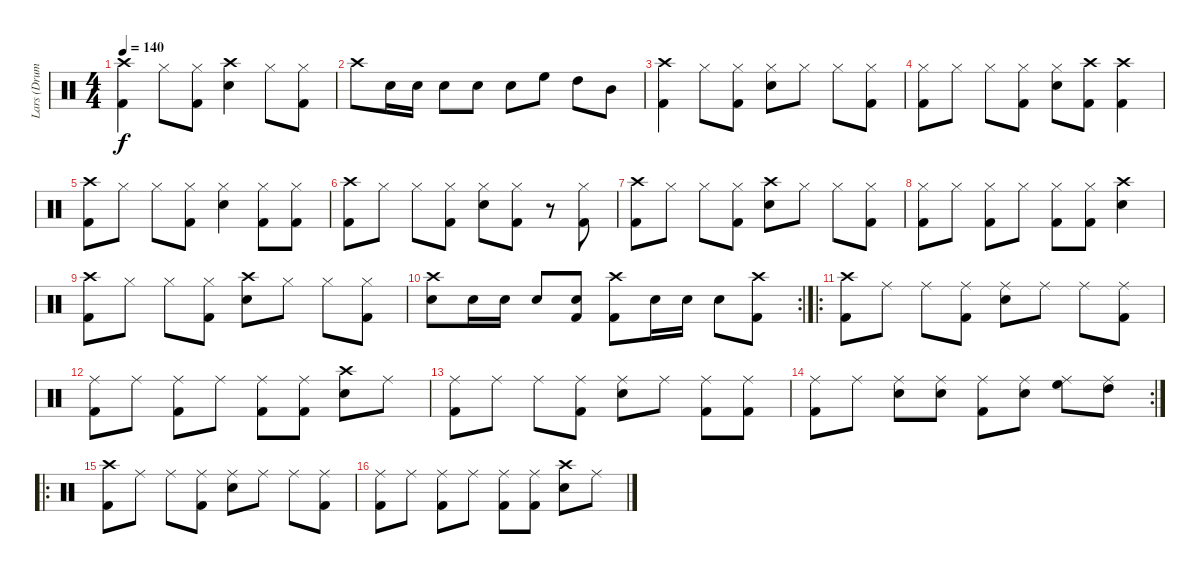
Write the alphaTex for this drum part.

\track ("Lars (Drums)" "Lars (Drum") {instrument percussion}
\staff {score}
\articulation defaults
\ts (4 4)
\tempo 140
\clef neutral
\ks c
("Crash high (hit)" "Kick (hit) 2").4{dy f} "Hi-Hat (closed)".8 ("Hi-Hat (closed)" "Kick (hit) 2").8 ("Crash high (hit)" "Snare (hit) 2").4 "Hi-Hat (closed)".8 ("Hi-Hat (closed)" "Kick (hit) 2").8 |
"Crash high (hit)".8 "Snare (hit) 2".16 "Snare (hit) 2".16 "Snare (hit) 2".8 "Snare (hit) 2".8 "Snare (hit) 2".8 "High Floor Tom (hit)".8 "High Tom (hit)".8 "Mid Tom (hit)".8 |
("Crash high (hit)" "Kick (hit) 2").4 "Hi-Hat (closed)".8 ("Hi-Hat (closed)" "Kick (hit) 2").8 ("Hi-Hat (closed)" "Snare (hit) 2").8 "Hi-Hat (closed)".8 "Hi-Hat (closed)".8 ("Hi-Hat (closed)" "Kick (hit) 2").8 |
("Hi-Hat (closed)" "Kick (hit) 2").8 "Hi-Hat (closed)".8 "Hi-Hat (closed)".8 ("Hi-Hat (closed)" "Kick (hit) 2").8 ("Hi-Hat (closed)" "Snare (hit) 2").8 ("Crash high (hit)" "Kick (hit) 2").8 ("Crash high (hit)" "Kick (hit) 2").4 |
("Crash high (hit)" "Kick (hit) 2").8 "Hi-Hat (closed)".8 "Hi-Hat (closed)".8 ("Hi-Hat (closed)" "Kick (hit) 2").8 ("Hi-Hat (closed)" "Snare (hit) 2").4 ("Hi-Hat (closed)" "Kick (hit) 2").8 ("Hi-Hat (closed)" "Kick (hit) 2").8 |
("Crash high (hit)" "Kick (hit) 2").8 "Hi-Hat (closed)".8 "Hi-Hat (closed)".8 ("Hi-Hat (closed)" "Kick (hit) 2").8 ("Hi-Hat (closed)" "Snare (hit) 2").8 ("Hi-Hat (closed)" "Kick (hit) 2").8 r.8 ("Hi-Hat (closed)" "Kick (hit) 2").8 |
("Crash high (hit)" "Kick (hit) 2").8 "Hi-Hat (closed)".8 "Hi-Hat (closed)".8 ("Hi-Hat (closed)" "Kick (hit) 2").8 ("Crash high (hit)" "Snare (hit) 2").8 "Hi-Hat (closed)".8 "Hi-Hat (closed)".8 ("Hi-Hat (closed)" "Kick (hit) 2").8 |
("Hi-Hat (closed)" "Kick (hit) 2").8 "Hi-Hat (closed)".8 ("Hi-Hat (closed)" "Kick (hit) 2").8 "Hi-Hat (closed)".8 ("Hi-Hat (closed)" "Kick (hit) 2").8 ("Hi-Hat (closed)" "Kick (hit) 2").8 ("Crash high (hit)" "Snare (hit) 2").4 |
("Crash high (hit)" "Kick (hit) 2").8 "Hi-Hat (closed)".8 "Hi-Hat (closed)".8 ("Hi-Hat (closed)" "Kick (hit) 2").8 ("Crash high (hit)" "Snare (hit) 2").8 "Hi-Hat (closed)".8 "Hi-Hat (closed)".8 ("Hi-Hat (closed)" "Kick (hit) 2").8 |
\rc 2
("Crash high (hit)" "Snare (hit) 2").8 "Snare (hit) 2".16 "Snare (hit) 2".16 "Snare (hit) 2".8 ("Kick (hit) 2" "Snare (hit) 2").8 ("Crash high (hit)" "Kick (hit) 2").8 "Snare (hit) 2".16 "Snare (hit) 2".16 "Snare (hit) 2".8 ("Crash high (hit)" "Kick (hit) 2").8 |
\ro
("Crash high (hit)" "Kick (hit) 2").8 "Ride (middle)".8 "Ride (middle)".8 ("Ride (middle)" "Kick (hit) 2").8 ("Ride (middle)" "Snare (hit) 2").8 "Ride (middle)".8 "Ride (middle)".8 ("Ride (middle)" "Kick (hit) 2").8 |
("Ride (middle)" "Kick (hit) 2").8 "Ride (middle)".8 ("Ride (middle)" "Kick (hit) 2").8 "Ride (middle)".8 ("Ride (middle)" "Kick (hit) 2").8 ("Ride (middle)" "Kick (hit) 2").8 ("Crash high (hit)" "Snare (hit) 2").8 "Ride (middle)".8 |
("Ride (middle)" "Kick (hit) 2").8 "Ride (middle)".8 "Ride (middle)".8 ("Ride (middle)" "Kick (hit) 2").8 ("Ride (middle)" "Snare (hit) 2").8 "Ride (middle)".8 ("Ride (middle)" "Kick (hit) 2").8 ("Ride (middle)" "Kick (hit) 2").8 |
\rc 2
("Ride (middle)" "Kick (hit) 2").8 "Ride (middle)".8 ("Ride (middle)" "Snare (hit) 2").8 ("Ride (middle)" "Snare (hit) 2").8 ("Ride (middle)" "Kick (hit) 2").8 ("Ride (middle)" "Snare (hit) 2").8 ("Ride (middle)" "High Floor Tom (hit)").8 ("Ride (middle)" "High Tom (hit)").8 |
\ro
("Crash high (hit)" "Kick (hit) 2").8 "Ride (middle)".8 "Ride (middle)".8 ("Ride (middle)" "Kick (hit) 2").8 ("Ride (middle)" "Snare (hit) 2").8 "Ride (middle)".8 "Ride (middle)".8 ("Ride (middle)" "Kick (hit) 2").8 |
("Ride (middle)" "Kick (hit) 2").8 "Ride (middle)".8 ("Ride (middle)" "Kick (hit) 2").8 "Ride (middle)".8 ("Ride (middle)" "Kick (hit) 2").8 ("Ride (middle)" "Kick (hit) 2").8 ("Crash high (hit)" "Snare (hit) 2").8 "Ride (middle)".8
